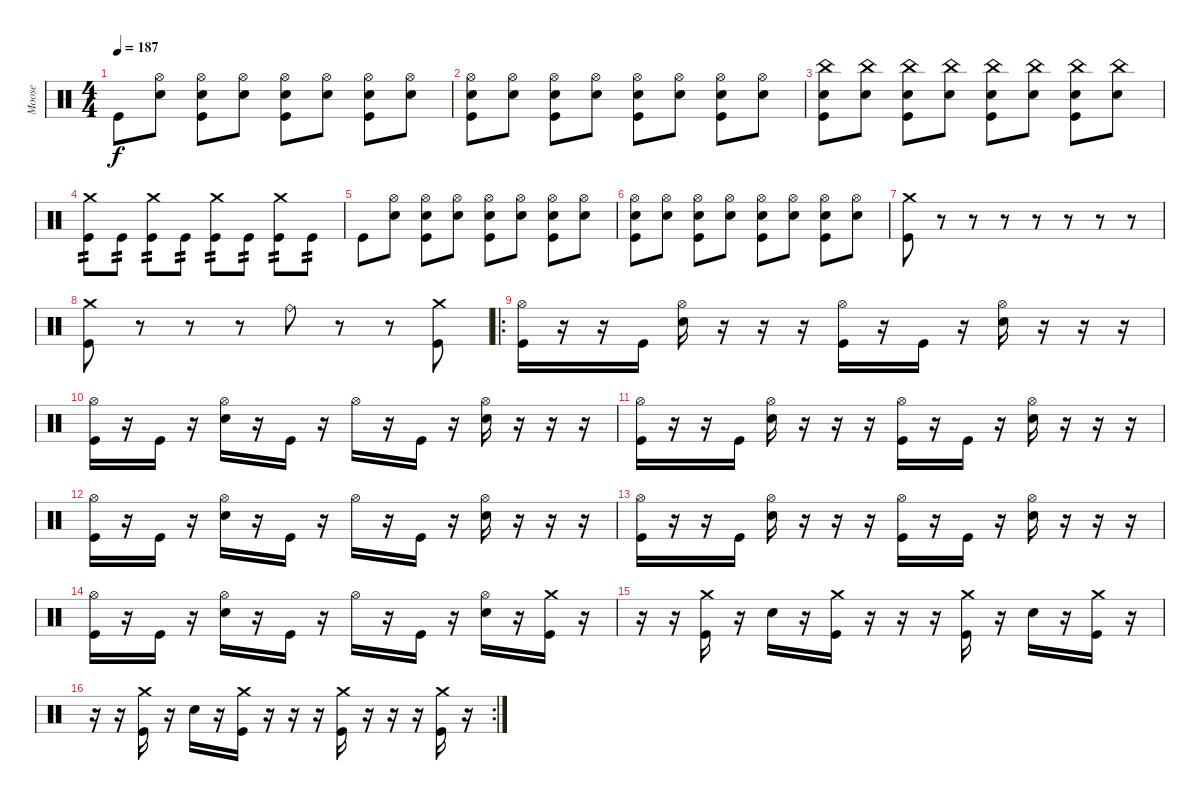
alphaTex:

\track ("Moose" "Moose") {instrument percussion}
\staff {score}
\articulation defaults
\ts (4 4)
\tempo 187
\clef neutral
\ks c "Kick (hit)".8{dy f}
("Electric Snare (hit)" "Hi-Hat (open)").8 ("Electric Snare (hit)" "Hi-Hat (open)" "Kick (hit)").8 ("Electric Snare (hit)" "Hi-Hat (open)").8 ("Electric Snare (hit)" "Hi-Hat (open)" "Kick (hit)").8 ("Electric Snare (hit)" "Hi-Hat (open)").8 ("Electric Snare (hit)" "Hi-Hat (open)" "Kick (hit)").8 ("Electric Snare (hit)" "Hi-Hat (open)").8 |
("Electric Snare (hit)" "Hi-Hat (open)" "Kick (hit)").8 ("Electric Snare (hit)" "Hi-Hat (open)").8 ("Electric Snare (hit)" "Hi-Hat (open)" "Kick (hit)").8 ("Electric Snare (hit)" "Hi-Hat (open)").8 ("Electric Snare (hit)" "Hi-Hat (open)" "Kick (hit)").8 ("Electric Snare (hit)" "Hi-Hat (open)").8 ("Electric Snare (hit)" "Hi-Hat (open)" "Kick (hit)").8 ("Electric Snare (hit)" "Hi-Hat (open)").8 |
("Electric Snare (hit)" "China (hit)" "Kick (hit)").8 ("Electric Snare (hit)" "China (hit)").8 ("Electric Snare (hit)" "China (hit)" "Kick (hit)").8 ("Electric Snare (hit)" "China (hit)").8 ("Electric Snare (hit)" "China (hit)" "Kick (hit)").8 ("Electric Snare (hit)" "China (hit)").8 ("Electric Snare (hit)" "China (hit)" "Kick (hit)").8 ("Electric Snare (hit)" "China (hit)").8 |
("Crash medium (hit)" "Kick (hit)").8{tp 2} "Kick (hit)".8{tp 2} ("Crash medium (hit)" "Kick (hit)").8{tp 2} "Kick (hit)".8{tp 2} ("Crash medium (hit)" "Kick (hit)").8{tp 2} "Kick (hit)".8{tp 2} ("Crash medium (hit)" "Kick (hit)").8{tp 2} "Kick (hit)".8{tp 2} |
"Kick (hit)".8 ("Electric Snare (hit)" "Hi-Hat (open)").8 ("Electric Snare (hit)" "Hi-Hat (open)" "Kick (hit)").8 ("Electric Snare (hit)" "Hi-Hat (open)").8 ("Electric Snare (hit)" "Hi-Hat (open)" "Kick (hit)").8 ("Electric Snare (hit)" "Hi-Hat (open)").8 ("Electric Snare (hit)" "Hi-Hat (open)" "Kick (hit)").8 ("Electric Snare (hit)" "Hi-Hat (open)").8 |
("Electric Snare (hit)" "Hi-Hat (open)" "Kick (hit)").8 ("Electric Snare (hit)" "Hi-Hat (open)").8 ("Electric Snare (hit)" "Hi-Hat (open)" "Kick (hit)").8 ("Electric Snare (hit)" "Hi-Hat (open)").8 ("Electric Snare (hit)" "Hi-Hat (open)" "Kick (hit)").8 ("Electric Snare (hit)" "Hi-Hat (open)").8 ("Electric Snare (hit)" "Hi-Hat (open)" "Kick (hit)").8 ("Electric Snare (hit)" "Hi-Hat (open)").8 |
("Crash medium (hit)" "Kick (hit)").8 r.8 r.8 r.8 r.8 r.8 r.8 r.8 |
("Crash medium (hit)" "Kick (hit)").8 r.8 r.8 r.8 "Ride (bell)".8 r.8 r.8 ("Crash medium (hit)" "Kick (hit)").8 |
\ro
("Hi-Hat (open)" "Kick (hit)").16 r.16 r.16 "Kick (hit)".16 ("Hi-Hat (open)" "Electric Snare (hit)").16 r.16 r.16 r.16 ("Hi-Hat (open)" "Kick (hit)").16 r.16 "Kick (hit)".16 r.16 ("Hi-Hat (open)" "Electric Snare (hit)").16 r.16 r.16 r.16 |
("Hi-Hat (open)" "Kick (hit)").16 r.16 "Kick (hit)".16 r.16 ("Hi-Hat (open)" "Electric Snare (hit)").16 r.16 "Kick (hit)".16 r.16 "Hi-Hat (open)".16 r.16 "Kick (hit)".16 r.16 ("Hi-Hat (open)" "Electric Snare (hit)").16 r.16 r.16 r.16 |
("Hi-Hat (open)" "Kick (hit)").16 r.16 r.16 "Kick (hit)".16 ("Hi-Hat (open)" "Electric Snare (hit)").16 r.16 r.16 r.16 ("Hi-Hat (open)" "Kick (hit)").16 r.16 "Kick (hit)".16 r.16 ("Hi-Hat (open)" "Electric Snare (hit)").16 r.16 r.16 r.16 |
("Hi-Hat (open)" "Kick (hit)").16 r.16 "Kick (hit)".16 r.16 ("Hi-Hat (open)" "Electric Snare (hit)").16 r.16 "Kick (hit)".16 r.16 "Hi-Hat (open)".16 r.16 "Kick (hit)".16 r.16 ("Hi-Hat (open)" "Electric Snare (hit)").16 r.16 r.16 r.16 |
("Hi-Hat (open)" "Kick (hit)").16 r.16 r.16 "Kick (hit)".16 ("Hi-Hat (open)" "Electric Snare (hit)").16 r.16 r.16 r.16 ("Hi-Hat (open)" "Kick (hit)").16 r.16 "Kick (hit)".16 r.16 ("Hi-Hat (open)" "Electric Snare (hit)").16 r.16 r.16 r.16 |
("Hi-Hat (open)" "Kick (hit)").16 r.16 "Kick (hit)".16 r.16 ("Hi-Hat (open)" "Electric Snare (hit)").16 r.16 "Kick (hit)".16 r.16 "Hi-Hat (open)".16 r.16 "Kick (hit)".16 r.16 ("Hi-Hat (open)" "Electric Snare (hit)").16 r.16 ("Crash medium (hit)" "Kick (hit)").16 r.16 |
r.16 r.16 ("Crash medium (hit)" "Kick (hit)").16 r.16 "Electric Snare (hit)".16 r.16 ("Crash medium (hit)" "Kick (hit)").16 r.16 r.16 r.16 ("Crash medium (hit)" "Kick (hit)").16 r.16 "Electric Snare (hit)".16 r.16 ("Crash medium (hit)" "Kick (hit)").16 r.16 |
\rc 2
r.16 r.16 ("Crash medium (hit)" "Kick (hit)").16 r.16 "Electric Snare (hit)".16 r.16 ("Crash medium (hit)" "Kick (hit)").16 r.16 r.16 r.16 ("Crash medium (hit)" "Kick (hit)").16 r.16 r.16 r.16 ("Crash medium (hit)" "Kick (hit)").16 r.16
